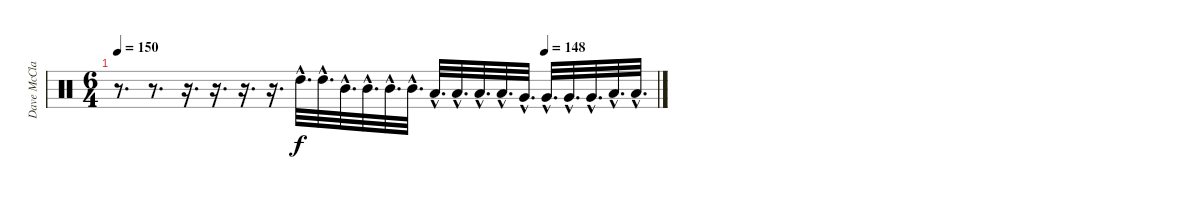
\track ("Dave McClain" "Dave McCla") {instrument percussion}
\staff {score}
\articulation defaults
\ts (6 4)
\tempo 150
\tempo (148 0.7916666666666666)
\clef neutral
\ks c
r.8{d dy f} r.8{d} r.16{d} r.16{d} r.16{d} r.16{d} "High Tom (hit)"{hac}.32{d} "High Tom (hit)"{hac}.32{d} "Mid Tom (hit)"{hac}.32{d} "Mid Tom (hit)"{hac}.32{d} "Mid Tom (hit)"{hac}.32{d} "Mid Tom (hit)"{hac}.32{d} "Low Tom (hit)"{hac}.32{d} "Low Tom (hit)"{hac}.32{d} "Low Tom (hit)"{hac}.32{d} "Low Tom (hit)"{hac}.32{d} "Very Low Tom (hit)"{hac}.32{d} "Very Low Tom (hit)"{hac}.32{d} "Very Low Tom (hit)"{hac}.32{d} "Very Low Tom (hit)"{hac}.32{d} "Low Floor Tom (hit)"{hac}.32{d} "Low Floor Tom (hit)"{hac}.32{d}
